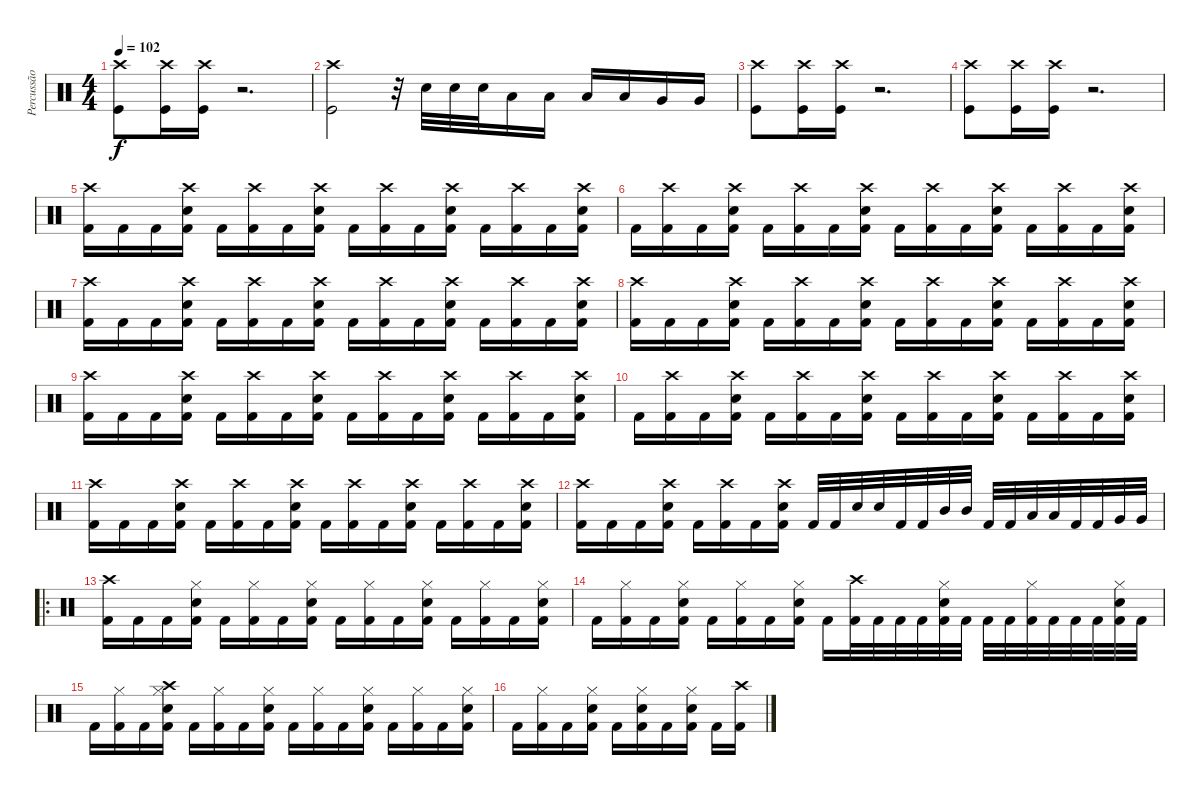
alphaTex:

\track ("Percussão" "Percussão") {instrument percussion}
\staff {score}
\articulation defaults
\ts (4 4)
\section ("" "")
\tempo 102
\clef neutral
\ks c
("Crash high (hit)" "Kick (hit)").8{dy f} ("Crash high (hit)" "Kick (hit)").16 ("Crash high (hit)" "Kick (hit)").16 r.2{d} |
("Crash high (hit)" "Kick (hit)").2 r.32 "Snare (hit) 2".32 "Snare (hit) 2".32 "Snare (hit) 2".32 "Low Tom (hit)".16 "Low Tom (hit)".16 "Low Tom (hit)".16 "Low Tom (hit)".16 "Very Low Tom (hit)".16 "Very Low Tom (hit)".16 |
("Crash high (hit)" "Kick (hit)").8 ("Crash high (hit)" "Kick (hit)").16 ("Crash high (hit)" "Kick (hit)").16 r.2{d} |
("Crash high (hit)" "Kick (hit)").8 ("Crash high (hit)" "Kick (hit)").16 ("Crash high (hit)" "Kick (hit)").16 r.2{d} |
("Crash high (hit)" "Kick (hit) 2").16 "Kick (hit) 2".16 "Kick (hit) 2".16 ("Crash high (hit)" "Electric Snare (hit)" "Kick (hit) 2").16 "Kick (hit) 2".16 ("Crash high (hit)" "Kick (hit) 2").16 "Kick (hit) 2".16 ("Crash high (hit)" "Electric Snare (hit)" "Kick (hit) 2").16 "Kick (hit) 2".16 ("Crash high (hit)" "Kick (hit) 2").16 "Kick (hit) 2".16 ("Crash high (hit)" "Electric Snare (hit)" "Kick (hit) 2").16 "Kick (hit) 2".16 ("Crash high (hit)" "Kick (hit) 2").16 "Kick (hit) 2".16 ("Crash high (hit)" "Electric Snare (hit)" "Kick (hit) 2").16 |
"Kick (hit) 2".16 ("Crash high (hit)" "Kick (hit) 2").16 "Kick (hit) 2".16 ("Crash high (hit)" "Electric Snare (hit)" "Kick (hit) 2").16 "Kick (hit) 2".16 ("Crash high (hit)" "Kick (hit) 2").16 "Kick (hit) 2".16 ("Crash high (hit)" "Electric Snare (hit)" "Kick (hit) 2").16 "Kick (hit) 2".16 ("Crash high (hit)" "Kick (hit) 2").16 "Kick (hit) 2".16 ("Crash high (hit)" "Electric Snare (hit)" "Kick (hit) 2").16 "Kick (hit) 2".16 ("Crash high (hit)" "Kick (hit) 2").16 "Kick (hit) 2".16 ("Crash high (hit)" "Electric Snare (hit)" "Kick (hit) 2").16 |
("Crash high (hit)" "Kick (hit) 2").16 "Kick (hit) 2".16 "Kick (hit) 2".16 ("Crash high (hit)" "Electric Snare (hit)" "Kick (hit) 2").16 "Kick (hit) 2".16 ("Crash high (hit)" "Kick (hit) 2").16 "Kick (hit) 2".16 ("Crash high (hit)" "Electric Snare (hit)" "Kick (hit) 2").16 "Kick (hit) 2".16 ("Crash high (hit)" "Kick (hit) 2").16 "Kick (hit) 2".16 ("Crash high (hit)" "Electric Snare (hit)" "Kick (hit) 2").16 "Kick (hit) 2".16 ("Crash high (hit)" "Kick (hit) 2").16 "Kick (hit) 2".16 ("Crash high (hit)" "Electric Snare (hit)" "Kick (hit) 2").16 |
("Crash high (hit)" "Kick (hit) 2").16 "Kick (hit) 2".16 "Kick (hit) 2".16 ("Crash high (hit)" "Electric Snare (hit)" "Kick (hit) 2").16 "Kick (hit) 2".16 ("Crash high (hit)" "Kick (hit) 2").16 "Kick (hit) 2".16 ("Crash high (hit)" "Electric Snare (hit)" "Kick (hit) 2").16 "Kick (hit) 2".16 ("Crash high (hit)" "Kick (hit) 2").16 "Kick (hit) 2".16 ("Crash high (hit)" "Electric Snare (hit)" "Kick (hit) 2").16 "Kick (hit) 2".16 ("Crash high (hit)" "Kick (hit) 2").16 "Kick (hit) 2".16 ("Crash high (hit)" "Electric Snare (hit)" "Kick (hit) 2").16 |
("Crash high (hit)" "Kick (hit) 2").16 "Kick (hit) 2".16 "Kick (hit) 2".16 ("Crash high (hit)" "Electric Snare (hit)" "Kick (hit) 2").16 "Kick (hit) 2".16 ("Crash high (hit)" "Kick (hit) 2").16 "Kick (hit) 2".16 ("Crash high (hit)" "Electric Snare (hit)" "Kick (hit) 2").16 "Kick (hit) 2".16 ("Crash high (hit)" "Kick (hit) 2").16 "Kick (hit) 2".16 ("Crash high (hit)" "Electric Snare (hit)" "Kick (hit) 2").16 "Kick (hit) 2".16 ("Crash high (hit)" "Kick (hit) 2").16 "Kick (hit) 2".16 ("Crash high (hit)" "Electric Snare (hit)" "Kick (hit) 2").16 |
"Kick (hit) 2".16 ("Crash high (hit)" "Kick (hit) 2").16 "Kick (hit) 2".16 ("Crash high (hit)" "Electric Snare (hit)" "Kick (hit) 2").16 "Kick (hit) 2".16 ("Crash high (hit)" "Kick (hit) 2").16 "Kick (hit) 2".16 ("Crash high (hit)" "Electric Snare (hit)" "Kick (hit) 2").16 "Kick (hit) 2".16 ("Crash high (hit)" "Kick (hit) 2").16 "Kick (hit) 2".16 ("Crash high (hit)" "Electric Snare (hit)" "Kick (hit) 2").16 "Kick (hit) 2".16 ("Crash high (hit)" "Kick (hit) 2").16 "Kick (hit) 2".16 ("Crash high (hit)" "Electric Snare (hit)" "Kick (hit) 2").16 |
("Crash high (hit)" "Kick (hit) 2").16 "Kick (hit) 2".16 "Kick (hit) 2".16 ("Crash high (hit)" "Electric Snare (hit)" "Kick (hit) 2").16 "Kick (hit) 2".16 ("Crash high (hit)" "Kick (hit) 2").16 "Kick (hit) 2".16 ("Crash high (hit)" "Electric Snare (hit)" "Kick (hit) 2").16 "Kick (hit) 2".16 ("Crash high (hit)" "Kick (hit) 2").16 "Kick (hit) 2".16 ("Crash high (hit)" "Electric Snare (hit)" "Kick (hit) 2").16 "Kick (hit) 2".16 ("Crash high (hit)" "Kick (hit) 2").16 "Kick (hit) 2".16 ("Crash high (hit)" "Electric Snare (hit)" "Kick (hit) 2").16 |
("Crash high (hit)" "Kick (hit) 2").16 "Kick (hit) 2".16 "Kick (hit) 2".16 ("Crash high (hit)" "Electric Snare (hit)" "Kick (hit) 2").16 "Kick (hit) 2".16 ("Crash high (hit)" "Kick (hit) 2").16 "Kick (hit) 2".16 ("Crash high (hit)" "Electric Snare (hit)" "Kick (hit) 2").16 "Kick (hit) 2".32 "Kick (hit) 2".32 "Electric Snare (hit)".32 "Electric Snare (hit)".32 "Kick (hit) 2".32 "Kick (hit) 2".32 "Mid Tom (hit)".32 "Mid Tom (hit)".32 "Kick (hit) 2".32 "Kick (hit) 2".32 "Low Tom (hit)".32 "Low Tom (hit)".32 "Kick (hit) 2".32 "Kick (hit) 2".32 "Very Low Tom (hit)".32 "Very Low Tom (hit)".32 |
\ro
\section ("" "")
("Crash high (hit)" "Kick (hit) 2").16 "Kick (hit) 2".16 "Kick (hit) 2".16 ("Hi-Hat (closed)" "Electric Snare (hit)" "Kick (hit) 2").16 "Kick (hit) 2".16 ("Hi-Hat (closed)" "Kick (hit) 2").16 "Kick (hit) 2".16 ("Hi-Hat (closed)" "Electric Snare (hit)" "Kick (hit) 2").16 "Kick (hit) 2".16 ("Hi-Hat (closed)" "Kick (hit) 2").16 "Kick (hit) 2".16 ("Hi-Hat (closed)" "Electric Snare (hit)" "Kick (hit) 2").16 "Kick (hit) 2".16 ("Hi-Hat (closed)" "Kick (hit) 2").16 "Kick (hit) 2".16 ("Hi-Hat (closed)" "Electric Snare (hit)" "Kick (hit) 2").16 |
"Kick (hit) 2".16 ("Hi-Hat (closed)" "Kick (hit) 2").16 "Kick (hit) 2".16 ("Hi-Hat (closed)" "Electric Snare (hit)" "Kick (hit) 2").16 "Kick (hit) 2".16 ("Hi-Hat (closed)" "Kick (hit) 2").16 "Kick (hit) 2".16 ("Hi-Hat (closed)" "Electric Snare (hit)" "Kick (hit) 2").16 "Kick (hit) 2".16 ("Crash high (hit)" "Kick (hit) 2").32 "Kick (hit) 2".32 "Kick (hit) 2".32 "Kick (hit) 2".32 ("Hi-Hat (closed)" "Electric Snare (hit)" "Kick (hit) 2").32 "Kick (hit) 2".32 "Kick (hit) 2".32 "Kick (hit) 2".32 ("Hi-Hat (closed)" "Kick (hit) 2").32 "Kick (hit) 2".32 "Kick (hit) 2".32 "Kick (hit) 2".32 ("Hi-Hat (closed)" "Electric Snare (hit)" "Kick (hit) 2").32 "Kick (hit) 2".32 |
"Kick (hit) 2".16 ("Hi-Hat (closed)" "Kick (hit) 2").16 "Kick (hit) 2".16 ("Hi-Hat (closed)" "Crash high (hit)" "Electric Snare (hit)" "Kick (hit) 2").16 "Kick (hit) 2".16 ("Hi-Hat (closed)" "Kick (hit) 2").16 "Kick (hit) 2".16 ("Hi-Hat (closed)" "Electric Snare (hit)" "Kick (hit) 2").16 "Kick (hit) 2".16 ("Hi-Hat (closed)" "Kick (hit) 2").16 "Kick (hit) 2".16 ("Hi-Hat (closed)" "Electric Snare (hit)" "Kick (hit) 2").16 "Kick (hit) 2".16 ("Hi-Hat (closed)" "Kick (hit) 2").16 "Kick (hit) 2".16 ("Hi-Hat (closed)" "Electric Snare (hit)" "Kick (hit) 2").16 |
"Kick (hit) 2".16 ("Hi-Hat (closed)" "Kick (hit) 2").16 "Kick (hit) 2".16 ("Hi-Hat (closed)" "Electric Snare (hit)" "Kick (hit) 2").16 "Kick (hit) 2".16 ("Hi-Hat (closed)" "Electric Snare (hit)" "Kick (hit) 2").16 "Kick (hit) 2".16 ("Hi-Hat (closed)" "Electric Snare (hit)" "Kick (hit) 2").16 "Kick (hit) 2".16 ("Crash high (hit)" "Kick (hit) 2").16
